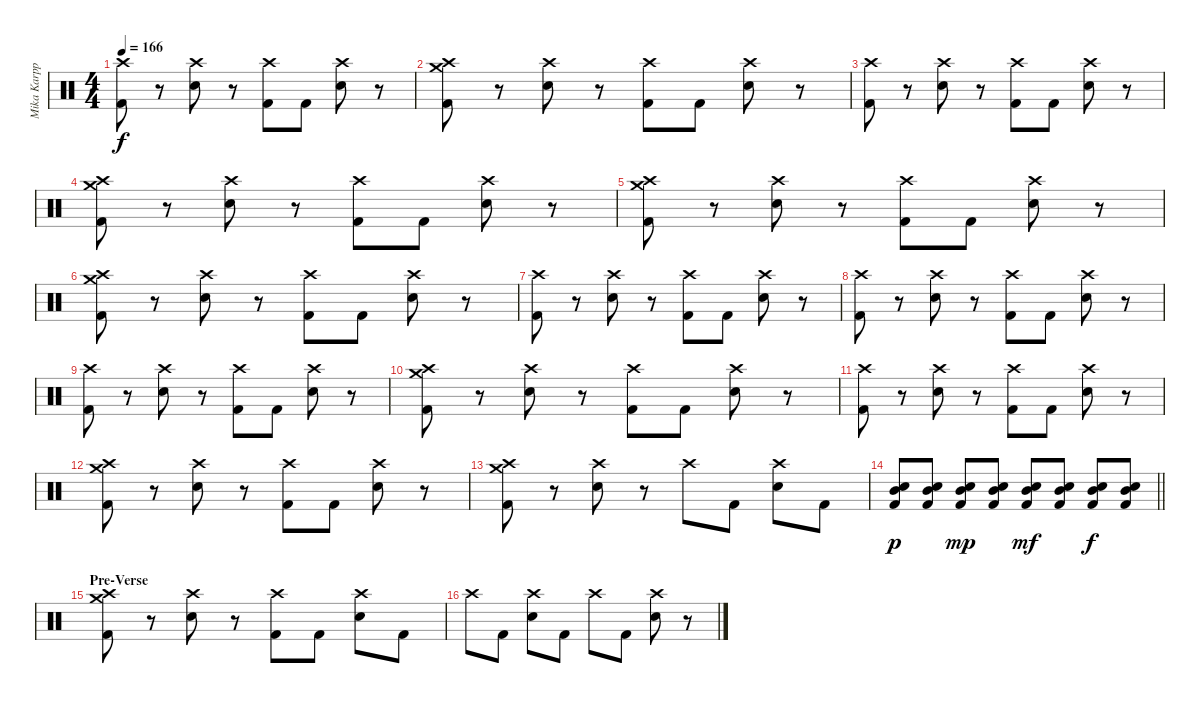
\track ("Mika Karppinen" "Mika Karpp") {instrument percussion}
\staff {score}
\articulation defaults
\ts (4 4)
\tempo 166
\clef neutral
\ks c
("Crash high (hit)" "Kick (hit) 2").8{dy f} r.8 ("Crash high (hit)" "Snare (hit) 2").8 r.8 ("Crash high (hit)" "Kick (hit) 2").8 "Kick (hit) 2".8 ("Crash high (hit)" "Snare (hit) 2").8 r.8 |
("Crash medium (hit)" "Crash high (hit)" "Kick (hit) 2").8 r.8 ("Crash high (hit)" "Snare (hit) 2").8 r.8 ("Crash high (hit)" "Kick (hit) 2").8 "Kick (hit) 2".8 ("Crash high (hit)" "Snare (hit) 2").8 r.8 |
("Crash high (hit)" "Kick (hit) 2").8 r.8 ("Crash high (hit)" "Snare (hit) 2").8 r.8 ("Crash high (hit)" "Kick (hit) 2").8 "Kick (hit) 2".8 ("Crash high (hit)" "Snare (hit) 2").8 r.8 |
("Crash medium (hit)" "Crash high (hit)" "Kick (hit) 2").8 r.8 ("Crash high (hit)" "Snare (hit) 2").8 r.8 ("Crash high (hit)" "Kick (hit) 2").8 "Kick (hit) 2".8 ("Crash high (hit)" "Snare (hit) 2").8 r.8 |
("Crash medium (hit)" "Crash high (hit)" "Kick (hit) 2").8 r.8 ("Crash high (hit)" "Snare (hit) 2").8 r.8 ("Crash high (hit)" "Kick (hit) 2").8 "Kick (hit) 2".8 ("Crash high (hit)" "Snare (hit) 2").8 r.8 |
("Crash medium (hit)" "Crash high (hit)" "Kick (hit) 2").8 r.8 ("Crash high (hit)" "Snare (hit) 2").8 r.8 ("Crash high (hit)" "Kick (hit) 2").8 "Kick (hit) 2".8 ("Crash high (hit)" "Snare (hit) 2").8 r.8 |
("Crash high (hit)" "Kick (hit) 2").8 r.8 ("Crash high (hit)" "Snare (hit) 2").8 r.8 ("Crash high (hit)" "Kick (hit) 2").8 "Kick (hit) 2".8 ("Crash high (hit)" "Snare (hit) 2").8 r.8 |
("Crash high (hit)" "Kick (hit) 2").8 r.8 ("Crash high (hit)" "Snare (hit) 2").8 r.8 ("Crash high (hit)" "Kick (hit) 2").8 "Kick (hit) 2".8 ("Crash high (hit)" "Snare (hit) 2").8 r.8 |
("Crash high (hit)" "Kick (hit) 2").8 r.8 ("Crash high (hit)" "Snare (hit) 2").8 r.8 ("Crash high (hit)" "Kick (hit) 2").8 "Kick (hit) 2".8 ("Crash high (hit)" "Snare (hit) 2").8 r.8 |
("Crash medium (hit)" "Crash high (hit)" "Kick (hit) 2").8 r.8 ("Crash high (hit)" "Snare (hit) 2").8 r.8 ("Crash high (hit)" "Kick (hit) 2").8 "Kick (hit) 2".8 ("Crash high (hit)" "Snare (hit) 2").8 r.8 |
("Crash high (hit)" "Kick (hit) 2").8 r.8 ("Crash high (hit)" "Snare (hit) 2").8 r.8 ("Crash high (hit)" "Kick (hit) 2").8 "Kick (hit) 2".8 ("Crash high (hit)" "Snare (hit) 2").8 r.8 |
("Crash medium (hit)" "Crash high (hit)" "Kick (hit) 2").8 r.8 ("Crash high (hit)" "Snare (hit) 2").8 r.8 ("Crash high (hit)" "Kick (hit) 2").8 "Kick (hit) 2".8 ("Crash high (hit)" "Snare (hit) 2").8 r.8 |
("Crash medium (hit)" "Crash high (hit)" "Kick (hit) 2").8 r.8 ("Crash high (hit)" "Snare (hit) 2").8 r.8 "Crash high (hit)".8 "Kick (hit) 2".8 ("Crash high (hit)" "Snare (hit) 2").8 "Kick (hit) 2".8 |
\barLineRight lightlight
("Mid Tom (hit)" "Snare (hit) 2" "Kick (hit) 2").8{dy p} ("Mid Tom (hit)" "Snare (hit) 2" "Kick (hit) 2").8 ("Mid Tom (hit)" "Snare (hit) 2" "Kick (hit) 2").8{dy mp} ("Mid Tom (hit)" "Snare (hit) 2" "Kick (hit) 2").8 ("Mid Tom (hit)" "Snare (hit) 2" "Kick (hit) 2").8{dy mf} ("Mid Tom (hit)" "Snare (hit) 2" "Kick (hit) 2").8 ("Mid Tom (hit)" "Snare (hit) 2" "Kick (hit) 2").8{dy f} ("Mid Tom (hit)" "Snare (hit) 2" "Kick (hit) 2").8 |
\section ("" "Pre-Verse")
("Crash medium (hit)" "Crash high (hit)" "Kick (hit) 2").8 r.8 ("Crash high (hit)" "Snare (hit) 2").8 r.8 ("Crash high (hit)" "Kick (hit) 2").8 "Kick (hit) 2".8 ("Crash high (hit)" "Snare (hit) 2").8 "Kick (hit) 2".8 |
"Crash high (hit)".8 "Kick (hit) 2".8 ("Crash high (hit)" "Snare (hit) 2").8 "Kick (hit) 2".8 "Crash high (hit)".8 "Kick (hit) 2".8 ("Crash high (hit)" "Snare (hit) 2").8 r.8
